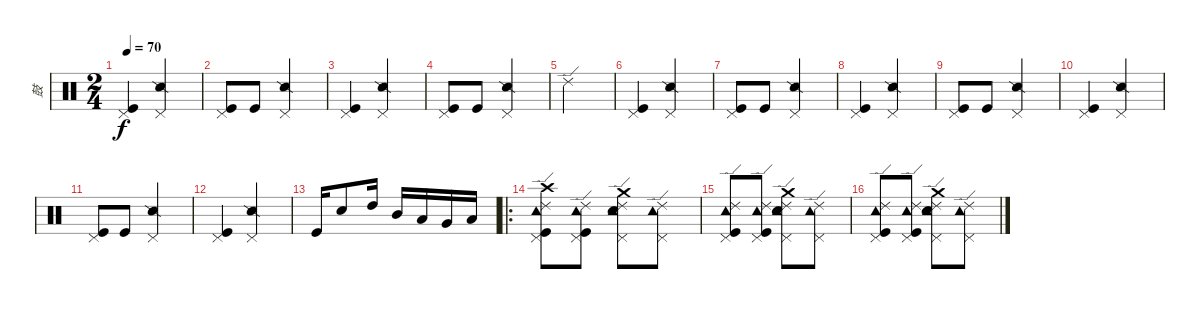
\track ("鼓" "鼓") {instrument percussion}
\staff {score}
\articulation defaults
\ts (2 4)
\tempo 70
\clef neutral
\ks c
("Pedal Hi-Hat (hit)" "Kick (hit)").4{dy f} ("Pedal Hi-Hat (hit)" "Snare (side stick) 2").4 |
("Pedal Hi-Hat (hit)" "Kick (hit)").8 "Kick (hit)".8 ("Pedal Hi-Hat (hit)" "Snare (side stick) 2").4 |
("Pedal Hi-Hat (hit)" "Kick (hit)").4 ("Pedal Hi-Hat (hit)" "Snare (side stick) 2").4 |
("Pedal Hi-Hat (hit)" "Kick (hit)").8 "Kick (hit)".8 ("Pedal Hi-Hat (hit)" "Snare (side stick) 2").4 |
"Ride (edge) 2".2 |
("Pedal Hi-Hat (hit)" "Kick (hit)").4 ("Pedal Hi-Hat (hit)" "Snare (side stick) 2").4 |
("Pedal Hi-Hat (hit)" "Kick (hit)").8 "Kick (hit)".8 ("Pedal Hi-Hat (hit)" "Snare (side stick) 2").4 |
("Pedal Hi-Hat (hit)" "Kick (hit)").4 ("Pedal Hi-Hat (hit)" "Snare (side stick) 2").4 |
("Pedal Hi-Hat (hit)" "Kick (hit)").8 "Kick (hit)".8 ("Pedal Hi-Hat (hit)" "Snare (side stick) 2").4 |
("Pedal Hi-Hat (hit)" "Kick (hit)").4 ("Pedal Hi-Hat (hit)" "Snare (side stick) 2").4 |
("Pedal Hi-Hat (hit)" "Kick (hit)").8 "Kick (hit)".8 ("Pedal Hi-Hat (hit)" "Snare (side stick) 2").4 |
("Pedal Hi-Hat (hit)" "Kick (hit)").4 ("Pedal Hi-Hat (hit)" "Snare (side stick) 2").4 |
"Kick (hit)".16 "Electric Snare (hit)".8 "High Tom (hit)".16 "Mid Tom (hit)".16 "Low Tom (hit)".16 "Very Low Tom (hit)".16 "Low Floor Tom (hit)".16 |
\ro
("Pedal Hi-Hat (hit)" "Ride (edge) 2" "Tambourine (hit)" "Kick (hit)" "Crash high (hit)").8 ("Pedal Hi-Hat (hit)" "Ride (edge) 2" "Tambourine (hit)" "Kick (hit)").8 ("Pedal Hi-Hat (hit)" "Ride (edge) 2" "Tambourine (hit)" "Electric Snare (hit)" "Crash medium (hit)").8 ("Pedal Hi-Hat (hit)" "Ride (edge) 2" "Tambourine (hit)").8 |
("Pedal Hi-Hat (hit)" "Ride (edge) 2" "Tambourine (hit)" "Kick (hit)").8 ("Pedal Hi-Hat (hit)" "Ride (edge) 2" "Tambourine (hit)" "Kick (hit)").8 ("Pedal Hi-Hat (hit)" "Ride (edge) 2" "Tambourine (hit)" "Electric Snare (hit)" "Crash medium (hit)").8 ("Pedal Hi-Hat (hit)" "Ride (edge) 2" "Tambourine (hit)").8 |
("Pedal Hi-Hat (hit)" "Ride (edge) 2" "Tambourine (hit)" "Kick (hit)").8 ("Pedal Hi-Hat (hit)" "Ride (edge) 2" "Tambourine (hit)" "Kick (hit)").8 ("Pedal Hi-Hat (hit)" "Ride (edge) 2" "Tambourine (hit)" "Electric Snare (hit)" "Crash medium (hit)").8 ("Pedal Hi-Hat (hit)" "Ride (edge) 2" "Tambourine (hit)").8
